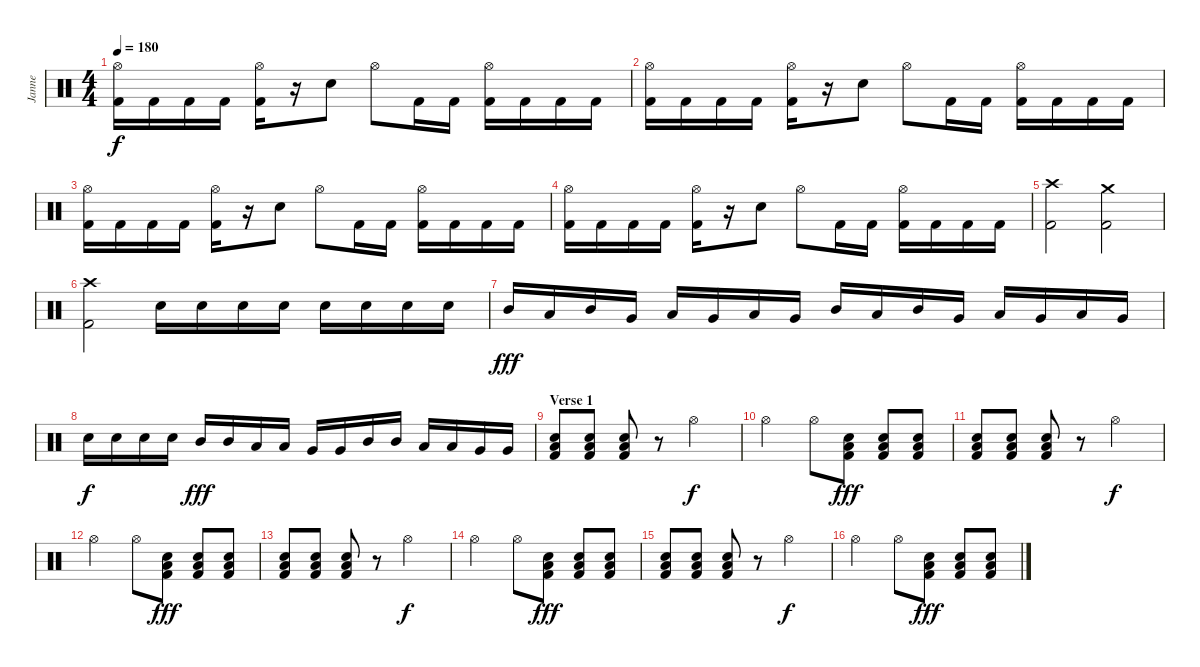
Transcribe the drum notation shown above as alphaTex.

\track ("Janne" "Janne") {instrument percussion}
\staff {score}
\articulation defaults
\ts (4 4)
\tempo 180
\clef neutral
\ks c
("Hi-Hat (open)" "Kick (hit) 2").16{dy f} "Kick (hit) 2".16 "Kick (hit) 2".16 "Kick (hit) 2".16 ("Hi-Hat (open)" "Kick (hit) 2").16 r.16 "Electric Snare (hit)".8 "Hi-Hat (open)".8 "Kick (hit) 2".16 "Kick (hit) 2".16 ("Hi-Hat (open)" "Kick (hit) 2").16 "Kick (hit) 2".16 "Kick (hit) 2".16 "Kick (hit) 2".16 |
("Hi-Hat (open)" "Kick (hit) 2").16 "Kick (hit) 2".16 "Kick (hit) 2".16 "Kick (hit) 2".16 ("Hi-Hat (open)" "Kick (hit) 2").16 r.16 "Electric Snare (hit)".8 "Hi-Hat (open)".8 "Kick (hit) 2".16 "Kick (hit) 2".16 ("Hi-Hat (open)" "Kick (hit) 2").16 "Kick (hit) 2".16 "Kick (hit) 2".16 "Kick (hit) 2".16 |
("Hi-Hat (open)" "Kick (hit) 2").16 "Kick (hit) 2".16 "Kick (hit) 2".16 "Kick (hit) 2".16 ("Hi-Hat (open)" "Kick (hit) 2").16 r.16 "Electric Snare (hit)".8 "Hi-Hat (open)".8 "Kick (hit) 2".16 "Kick (hit) 2".16 ("Hi-Hat (open)" "Kick (hit) 2").16 "Kick (hit) 2".16 "Kick (hit) 2".16 "Kick (hit) 2".16 |
("Hi-Hat (open)" "Kick (hit) 2").16 "Kick (hit) 2".16 "Kick (hit) 2".16 "Kick (hit) 2".16 ("Hi-Hat (open)" "Kick (hit) 2").16 r.16 "Electric Snare (hit)".8 "Hi-Hat (open)".8 "Kick (hit) 2".16 "Kick (hit) 2".16 ("Hi-Hat (open)" "Kick (hit) 2").16 "Kick (hit) 2".16 "Kick (hit) 2".16 "Kick (hit) 2".16 |
("Crash high (hit)" "Kick (hit) 2").2 ("Crash medium (hit)" "Kick (hit) 2").2 |
("Crash high (hit)" "Kick (hit) 2").2 "Electric Snare (hit)".16 "Electric Snare (hit)".16 "Electric Snare (hit)".16 "Electric Snare (hit)".16 "Electric Snare (hit)".16 "Electric Snare (hit)".16 "Electric Snare (hit)".16 "Electric Snare (hit)".16 |
"Mid Tom (hit)".16{dy fff} "Low Tom (hit)".16 "Mid Tom (hit)".16 "Very Low Tom (hit)".16 "Low Tom (hit)".16 "Very Low Tom (hit)".16 "Low Tom (hit)".16 "Very Low Tom (hit)".16 "Mid Tom (hit)".16 "Low Tom (hit)".16 "Mid Tom (hit)".16 "Very Low Tom (hit)".16 "Low Tom (hit)".16 "Very Low Tom (hit)".16 "Low Tom (hit)".16 "Very Low Tom (hit)".16 |
"Electric Snare (hit)".16{dy f} "Electric Snare (hit)".16 "Electric Snare (hit)".16 "Electric Snare (hit)".16 "Mid Tom (hit)".16{dy fff} "Mid Tom (hit)".16 "Low Tom (hit)".16 "Low Tom (hit)".16 "Very Low Tom (hit)".16 "Very Low Tom (hit)".16 "Mid Tom (hit)".16 "Mid Tom (hit)".16 "Low Tom (hit)".16 "Low Tom (hit)".16 "Very Low Tom (hit)".16 "Very Low Tom (hit)".16 |
\section ("" "Verse 1")
("Low Floor Tom (hit)" "Electric Snare (hit)" "Kick (hit) 2").8 ("Low Floor Tom (hit)" "Electric Snare (hit)" "Kick (hit) 2").8 ("Low Floor Tom (hit)" "Electric Snare (hit)" "Kick (hit) 2").8 r.8 "Hi-Hat (open)".2{dy f} |
"Hi-Hat (open)".2 "Hi-Hat (open)".8 ("Low Floor Tom (hit)" "Electric Snare (hit)" "Kick (hit) 2").8{dy fff} ("Low Floor Tom (hit)" "Electric Snare (hit)" "Kick (hit) 2").8 ("Low Floor Tom (hit)" "Electric Snare (hit)" "Kick (hit) 2").8 |
("Low Floor Tom (hit)" "Electric Snare (hit)" "Kick (hit) 2").8 ("Low Floor Tom (hit)" "Electric Snare (hit)" "Kick (hit) 2").8 ("Low Floor Tom (hit)" "Electric Snare (hit)" "Kick (hit) 2").8 r.8 "Hi-Hat (open)".2{dy f} |
"Hi-Hat (open)".2 "Hi-Hat (open)".8 ("Low Floor Tom (hit)" "Electric Snare (hit)" "Kick (hit) 2").8{dy fff} ("Low Floor Tom (hit)" "Electric Snare (hit)" "Kick (hit) 2").8 ("Low Floor Tom (hit)" "Electric Snare (hit)" "Kick (hit) 2").8 |
("Low Floor Tom (hit)" "Electric Snare (hit)" "Kick (hit) 2").8 ("Low Floor Tom (hit)" "Electric Snare (hit)" "Kick (hit) 2").8 ("Low Floor Tom (hit)" "Electric Snare (hit)" "Kick (hit) 2").8 r.8 "Hi-Hat (open)".2{dy f} |
"Hi-Hat (open)".2 "Hi-Hat (open)".8 ("Low Floor Tom (hit)" "Electric Snare (hit)" "Kick (hit) 2").8{dy fff} ("Low Floor Tom (hit)" "Electric Snare (hit)" "Kick (hit) 2").8 ("Low Floor Tom (hit)" "Electric Snare (hit)" "Kick (hit) 2").8 |
("Low Floor Tom (hit)" "Electric Snare (hit)" "Kick (hit) 2").8 ("Low Floor Tom (hit)" "Electric Snare (hit)" "Kick (hit) 2").8 ("Low Floor Tom (hit)" "Electric Snare (hit)" "Kick (hit) 2").8 r.8 "Hi-Hat (open)".2{dy f} |
"Hi-Hat (open)".2 "Hi-Hat (open)".8 ("Low Floor Tom (hit)" "Electric Snare (hit)" "Kick (hit) 2").8{dy fff} ("Low Floor Tom (hit)" "Electric Snare (hit)" "Kick (hit) 2").8 ("Low Floor Tom (hit)" "Electric Snare (hit)" "Kick (hit) 2").8
